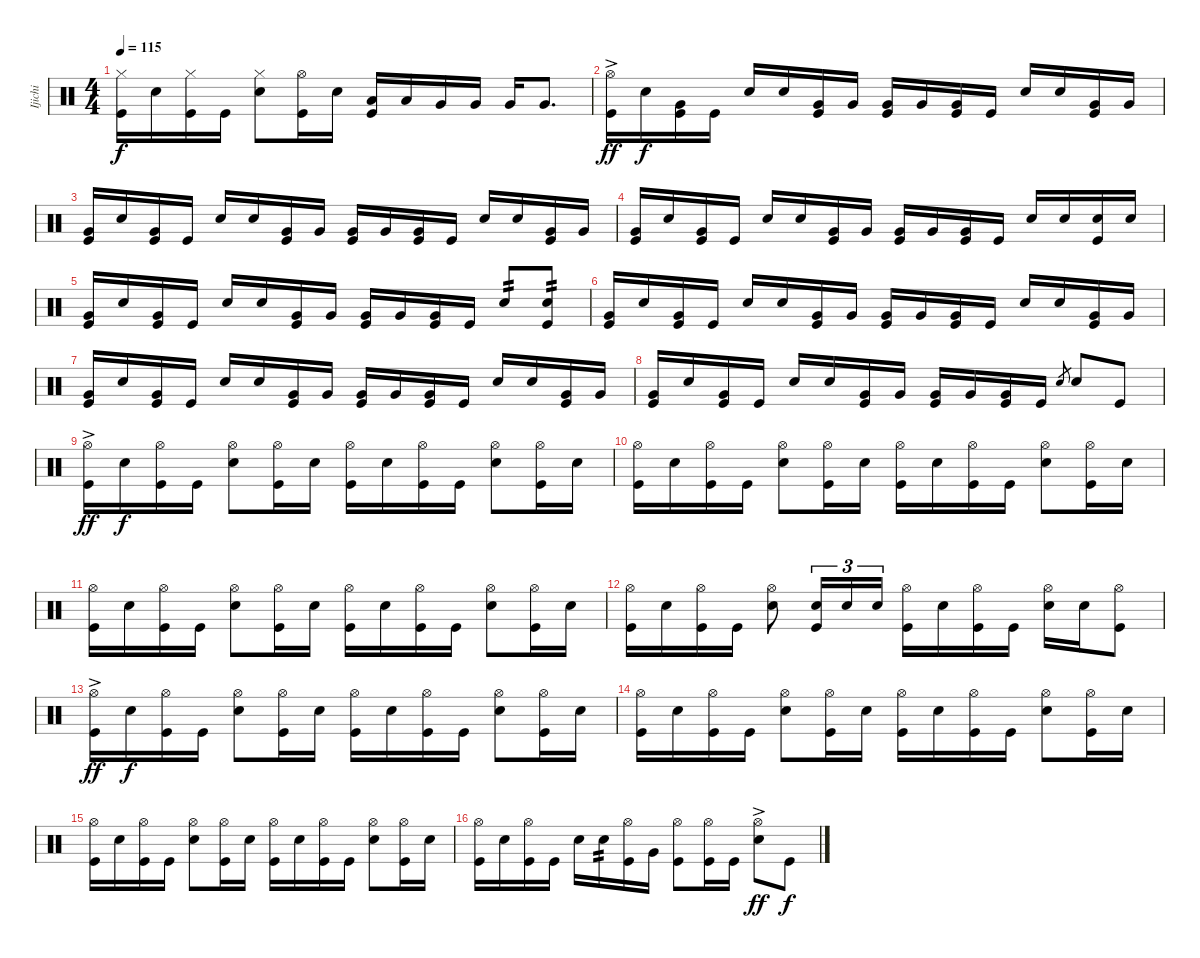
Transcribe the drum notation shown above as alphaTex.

\track ("Ijichi" "Ijichi") {instrument percussion}
\staff {score}
\articulation defaults
\ts (4 4)
\tempo 115
\clef neutral
\ks c
("Hi-Hat (closed)" "Kick (hit)").16{dy f} "Snare (hit) 2".16 ("Hi-Hat (closed)" "Kick (hit)").16 "Kick (hit)".16 ("Hi-Hat (closed)" "Snare (hit) 2").8 ("Hi-Hat (open)" "Kick (hit)").16 "Snare (hit) 2".16 ("Low Tom (hit)" "Kick (hit)").16 "Low Tom (hit)".16 "Very Low Tom (hit)".16 "Very Low Tom (hit)".16 "Very Low Tom (hit)".16 "Very Low Tom (hit)".8{d} |
("Hi-Hat (open)"{ac} "Kick (hit)").16{dy ff} "Snare (hit) 2".16{dy f} ("Very Low Tom (hit)" "Kick (hit)").16 "Kick (hit)".16 "Snare (hit) 2".16 "Snare (hit) 2".16 ("Very Low Tom (hit)" "Kick (hit)").16 "Very Low Tom (hit)".16 ("Very Low Tom (hit)" "Kick (hit)").16 "Very Low Tom (hit)".16 ("Very Low Tom (hit)" "Kick (hit)").16 "Kick (hit)".16 "Snare (hit) 2".16 "Snare (hit) 2".16 ("Very Low Tom (hit)" "Kick (hit)").16 "Very Low Tom (hit)".16 |
("Very Low Tom (hit)" "Kick (hit)").16 "Snare (hit) 2".16 ("Very Low Tom (hit)" "Kick (hit)").16 "Kick (hit)".16 "Snare (hit) 2".16 "Snare (hit) 2".16 ("Very Low Tom (hit)" "Kick (hit)").16 "Very Low Tom (hit)".16 ("Very Low Tom (hit)" "Kick (hit)").16 "Very Low Tom (hit)".16 ("Very Low Tom (hit)" "Kick (hit)").16 "Kick (hit)".16 "Snare (hit) 2".16 "Snare (hit) 2".16 ("Very Low Tom (hit)" "Kick (hit)").16 "Very Low Tom (hit)".16 |
("Very Low Tom (hit)" "Kick (hit)").16 "Snare (hit) 2".16 ("Very Low Tom (hit)" "Kick (hit)").16 "Kick (hit)".16 "Snare (hit) 2".16 "Snare (hit) 2".16 ("Very Low Tom (hit)" "Kick (hit)").16 "Very Low Tom (hit)".16 ("Very Low Tom (hit)" "Kick (hit)").16 "Very Low Tom (hit)".16 ("Very Low Tom (hit)" "Kick (hit)").16 "Kick (hit)".16 "Snare (hit) 2".16 "Snare (hit) 2".16 ("Snare (hit) 2" "Kick (hit)").16 "Snare (hit) 2".16 |
("Very Low Tom (hit)" "Kick (hit)").16 "Snare (hit) 2".16 ("Very Low Tom (hit)" "Kick (hit)").16 "Kick (hit)".16 "Snare (hit) 2".16 "Snare (hit) 2".16 ("Very Low Tom (hit)" "Kick (hit)").16 "Very Low Tom (hit)".16 ("Very Low Tom (hit)" "Kick (hit)").16 "Very Low Tom (hit)".16 ("Very Low Tom (hit)" "Kick (hit)").16 "Kick (hit)".16 "Snare (hit) 2".8{tp 2} ("Snare (hit) 2" "Kick (hit)").8{tp 2} |
("Very Low Tom (hit)" "Kick (hit)").16 "Snare (hit) 2".16 ("Very Low Tom (hit)" "Kick (hit)").16 "Kick (hit)".16 "Snare (hit) 2".16 "Snare (hit) 2".16 ("Very Low Tom (hit)" "Kick (hit)").16 "Very Low Tom (hit)".16 ("Very Low Tom (hit)" "Kick (hit)").16 "Very Low Tom (hit)".16 ("Very Low Tom (hit)" "Kick (hit)").16 "Kick (hit)".16 "Snare (hit) 2".16 "Snare (hit) 2".16 ("Very Low Tom (hit)" "Kick (hit)").16 "Very Low Tom (hit)".16 |
("Very Low Tom (hit)" "Kick (hit)").16 "Snare (hit) 2".16 ("Very Low Tom (hit)" "Kick (hit)").16 "Kick (hit)".16 "Snare (hit) 2".16 "Snare (hit) 2".16 ("Very Low Tom (hit)" "Kick (hit)").16 "Very Low Tom (hit)".16 ("Very Low Tom (hit)" "Kick (hit)").16 "Very Low Tom (hit)".16 ("Very Low Tom (hit)" "Kick (hit)").16 "Kick (hit)".16 "Snare (hit) 2".16 "Snare (hit) 2".16 ("Very Low Tom (hit)" "Kick (hit)").16 "Very Low Tom (hit)".16 |
("Very Low Tom (hit)" "Kick (hit)").16 "Snare (hit) 2".16 ("Very Low Tom (hit)" "Kick (hit)").16 "Kick (hit)".16 "Snare (hit) 2".16 "Snare (hit) 2".16 ("Very Low Tom (hit)" "Kick (hit)").16 "Very Low Tom (hit)".16 ("Very Low Tom (hit)" "Kick (hit)").16 "Very Low Tom (hit)".16 ("Very Low Tom (hit)" "Kick (hit)").16 "Kick (hit)".16 "Snare (hit) 2".8{gr} "Snare (hit) 2".8 "Kick (hit)".8 |
("Hi-Hat (open)"{ac} "Kick (hit)").16{dy ff} "Snare (hit) 2".16{dy f} ("Hi-Hat (open)" "Kick (hit)").16 "Kick (hit)".16 ("Hi-Hat (open)" "Snare (hit) 2").8 ("Hi-Hat (open)" "Kick (hit)").16 "Snare (hit) 2".16 ("Hi-Hat (open)" "Kick (hit)").16 "Snare (hit) 2".16 ("Hi-Hat (open)" "Kick (hit)").16 "Kick (hit)".16 ("Hi-Hat (open)" "Snare (hit) 2").8 ("Hi-Hat (open)" "Kick (hit)").16 "Snare (hit) 2".16 |
("Hi-Hat (open)" "Kick (hit)").16 "Snare (hit) 2".16 ("Hi-Hat (open)" "Kick (hit)").16 "Kick (hit)".16 ("Hi-Hat (open)" "Snare (hit) 2").8 ("Hi-Hat (open)" "Kick (hit)").16 "Snare (hit) 2".16 ("Hi-Hat (open)" "Kick (hit)").16 "Snare (hit) 2".16 ("Hi-Hat (open)" "Kick (hit)").16 "Kick (hit)".16 ("Hi-Hat (open)" "Snare (hit) 2").8 ("Hi-Hat (open)" "Kick (hit)").16 "Snare (hit) 2".16 |
("Hi-Hat (open)" "Kick (hit)").16 "Snare (hit) 2".16 ("Hi-Hat (open)" "Kick (hit)").16 "Kick (hit)".16 ("Hi-Hat (open)" "Snare (hit) 2").8 ("Hi-Hat (open)" "Kick (hit)").16 "Snare (hit) 2".16 ("Hi-Hat (open)" "Kick (hit)").16 "Snare (hit) 2".16 ("Hi-Hat (open)" "Kick (hit)").16 "Kick (hit)".16 ("Hi-Hat (open)" "Snare (hit) 2").8 ("Hi-Hat (open)" "Kick (hit)").16 "Snare (hit) 2".16 |
("Hi-Hat (open)" "Kick (hit)").16 "Snare (hit) 2".16 ("Hi-Hat (open)" "Kick (hit)").16 "Kick (hit)".16 ("Hi-Hat (open)" "Snare (hit) 2").8 ("Snare (hit) 2" "Kick (hit)").16{tu (3 2)} "Snare (hit) 2".16{tu (3 2)} "Snare (hit) 2".16{tu (3 2)} ("Hi-Hat (open)" "Kick (hit)").16 "Snare (hit) 2".16 ("Hi-Hat (open)" "Kick (hit)").16 "Kick (hit)".16 ("Hi-Hat (open)" "Snare (hit) 2").16 "Snare (hit) 2".16 ("Hi-Hat (open)" "Kick (hit)").8 |
("Hi-Hat (open)"{ac} "Kick (hit)").16{dy ff} "Snare (hit) 2".16{dy f} ("Hi-Hat (open)" "Kick (hit)").16 "Kick (hit)".16 ("Hi-Hat (open)" "Snare (hit) 2").8 ("Hi-Hat (open)" "Kick (hit)").16 "Snare (hit) 2".16 ("Hi-Hat (open)" "Kick (hit)").16 "Snare (hit) 2".16 ("Hi-Hat (open)" "Kick (hit)").16 "Kick (hit)".16 ("Hi-Hat (open)" "Snare (hit) 2").8 ("Hi-Hat (open)" "Kick (hit)").16 "Snare (hit) 2".16 |
("Hi-Hat (open)" "Kick (hit)").16 "Snare (hit) 2".16 ("Hi-Hat (open)" "Kick (hit)").16 "Kick (hit)".16 ("Hi-Hat (open)" "Snare (hit) 2").8 ("Hi-Hat (open)" "Kick (hit)").16 "Snare (hit) 2".16 ("Hi-Hat (open)" "Kick (hit)").16 "Snare (hit) 2".16 ("Hi-Hat (open)" "Kick (hit)").16 "Kick (hit)".16 ("Hi-Hat (open)" "Snare (hit) 2").8 ("Hi-Hat (open)" "Kick (hit)").16 "Snare (hit) 2".16 |
("Hi-Hat (open)" "Kick (hit)").16 "Snare (hit) 2".16 ("Hi-Hat (open)" "Kick (hit)").16 "Kick (hit)".16 ("Hi-Hat (open)" "Snare (hit) 2").8 ("Hi-Hat (open)" "Kick (hit)").16 "Snare (hit) 2".16 ("Hi-Hat (open)" "Kick (hit)").16 "Snare (hit) 2".16 ("Hi-Hat (open)" "Kick (hit)").16 "Kick (hit)".16 ("Hi-Hat (open)" "Snare (hit) 2").8 ("Hi-Hat (open)" "Kick (hit)").16 "Snare (hit) 2".16 |
("Hi-Hat (open)" "Kick (hit)").16 "Snare (hit) 2".16 ("Hi-Hat (open)" "Kick (hit)").16 "Kick (hit)".16 "Snare (hit) 2".16 "Snare (hit) 2".16{tp 2} ("Hi-Hat (open)" "Kick (hit)").16 "Very Low Tom (hit)".16 ("Hi-Hat (open)" "Kick (hit)").8 ("Hi-Hat (open)" "Kick (hit)").16 "Kick (hit)".16 ("Hi-Hat (open)"{ac} "Snare (hit) 2").8{dy ff} "Kick (hit)".8{dy f}
